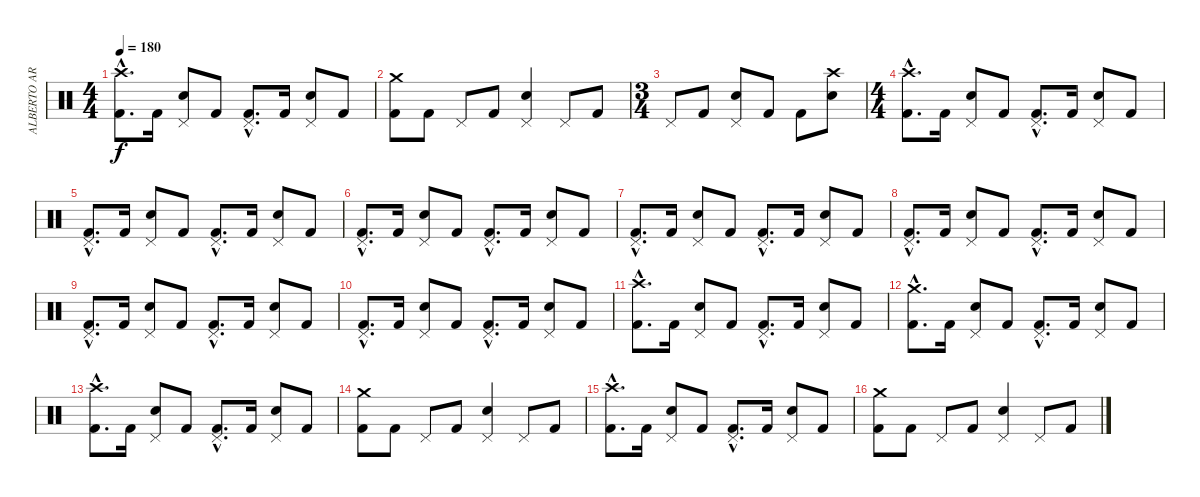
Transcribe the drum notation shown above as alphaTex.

\track ("ALBERTO ARDINES" "ALBERTO AR") {instrument percussion}
\staff {score}
\articulation defaults
\ts (4 4)
\tempo 180
\clef neutral
\ks c
("Crash high (hit)"{hac} "Kick (hit) 2"{hac}).8{d dy f} "Kick (hit) 2".16 ("Pedal Hi-Hat (hit)" "Electric Snare (hit)").8 "Kick (hit) 2".8 ("Pedal Hi-Hat (hit)"{hac} "Kick (hit) 2"{hac}).8{d} "Kick (hit) 2".16 ("Pedal Hi-Hat (hit)" "Electric Snare (hit)").8 "Kick (hit) 2".8 |
("Crash medium (hit)" "Kick (hit) 2").8 "Kick (hit) 2".8 "Pedal Hi-Hat (hit)".8 "Kick (hit) 2".8 ("Pedal Hi-Hat (hit)" "Electric Snare (hit)").4 "Pedal Hi-Hat (hit)".8 "Kick (hit) 2".8 |
\ts (3 4)
"Pedal Hi-Hat (hit)".8 "Kick (hit) 2".8 ("Pedal Hi-Hat (hit)" "Electric Snare (hit)").8 "Kick (hit) 2".8 "Kick (hit) 2".8 ("Crash high (hit)" "Electric Snare (hit)").8 |
\ts (4 4)
("Crash high (hit)"{hac} "Kick (hit) 2"{hac}).8{d} "Kick (hit) 2".16 ("Pedal Hi-Hat (hit)" "Electric Snare (hit)").8 "Kick (hit) 2".8 ("Pedal Hi-Hat (hit)"{hac} "Kick (hit) 2"{hac}).8{d} "Kick (hit) 2".16 ("Pedal Hi-Hat (hit)" "Electric Snare (hit)").8 "Kick (hit) 2".8 |
("Pedal Hi-Hat (hit)"{hac} "Kick (hit) 2"{hac}).8{d} "Kick (hit) 2".16 ("Pedal Hi-Hat (hit)" "Electric Snare (hit)").8 "Kick (hit) 2".8 ("Pedal Hi-Hat (hit)"{hac} "Kick (hit) 2"{hac}).8{d} "Kick (hit) 2".16 ("Pedal Hi-Hat (hit)" "Electric Snare (hit)").8 "Kick (hit) 2".8 |
("Pedal Hi-Hat (hit)"{hac} "Kick (hit) 2"{hac}).8{d} "Kick (hit) 2".16 ("Pedal Hi-Hat (hit)" "Electric Snare (hit)").8 "Kick (hit) 2".8 ("Pedal Hi-Hat (hit)"{hac} "Kick (hit) 2"{hac}).8{d} "Kick (hit) 2".16 ("Pedal Hi-Hat (hit)" "Electric Snare (hit)").8 "Kick (hit) 2".8 |
("Pedal Hi-Hat (hit)"{hac} "Kick (hit) 2"{hac}).8{d} "Kick (hit) 2".16 ("Pedal Hi-Hat (hit)" "Electric Snare (hit)").8 "Kick (hit) 2".8 ("Pedal Hi-Hat (hit)"{hac} "Kick (hit) 2"{hac}).8{d} "Kick (hit) 2".16 ("Pedal Hi-Hat (hit)" "Electric Snare (hit)").8 "Kick (hit) 2".8 |
("Pedal Hi-Hat (hit)"{hac} "Kick (hit) 2"{hac}).8{d} "Kick (hit) 2".16 ("Pedal Hi-Hat (hit)" "Electric Snare (hit)").8 "Kick (hit) 2".8 ("Pedal Hi-Hat (hit)"{hac} "Kick (hit) 2"{hac}).8{d} "Kick (hit) 2".16 ("Pedal Hi-Hat (hit)" "Electric Snare (hit)").8 "Kick (hit) 2".8 |
("Pedal Hi-Hat (hit)"{hac} "Kick (hit) 2"{hac}).8{d} "Kick (hit) 2".16 ("Pedal Hi-Hat (hit)" "Electric Snare (hit)").8 "Kick (hit) 2".8 ("Pedal Hi-Hat (hit)"{hac} "Kick (hit) 2"{hac}).8{d} "Kick (hit) 2".16 ("Pedal Hi-Hat (hit)" "Electric Snare (hit)").8 "Kick (hit) 2".8 |
("Pedal Hi-Hat (hit)"{hac} "Kick (hit) 2"{hac}).8{d} "Kick (hit) 2".16 ("Pedal Hi-Hat (hit)" "Electric Snare (hit)").8 "Kick (hit) 2".8 ("Pedal Hi-Hat (hit)"{hac} "Kick (hit) 2"{hac}).8{d} "Kick (hit) 2".16 ("Pedal Hi-Hat (hit)" "Electric Snare (hit)").8 "Kick (hit) 2".8 |
("Crash high (hit)"{hac} "Kick (hit) 2"{hac}).8{d} "Kick (hit) 2".16 ("Pedal Hi-Hat (hit)" "Electric Snare (hit)").8 "Kick (hit) 2".8 ("Pedal Hi-Hat (hit)"{hac} "Kick (hit) 2"{hac}).8{d} "Kick (hit) 2".16 ("Pedal Hi-Hat (hit)" "Electric Snare (hit)").8 "Kick (hit) 2".8 |
("Crash medium (hit)"{hac} "Kick (hit) 2"{hac}).8{d} "Kick (hit) 2".16 ("Pedal Hi-Hat (hit)" "Electric Snare (hit)").8 "Kick (hit) 2".8 ("Pedal Hi-Hat (hit)"{hac} "Kick (hit) 2"{hac}).8{d} "Kick (hit) 2".16 ("Pedal Hi-Hat (hit)" "Electric Snare (hit)").8 "Kick (hit) 2".8 |
("Crash high (hit)"{hac} "Kick (hit) 2"{hac}).8{d} "Kick (hit) 2".16 ("Pedal Hi-Hat (hit)" "Electric Snare (hit)").8 "Kick (hit) 2".8 ("Pedal Hi-Hat (hit)"{hac} "Kick (hit) 2"{hac}).8{d} "Kick (hit) 2".16 ("Pedal Hi-Hat (hit)" "Electric Snare (hit)").8 "Kick (hit) 2".8 |
("Crash medium (hit)" "Kick (hit) 2").8 "Kick (hit) 2".8 "Pedal Hi-Hat (hit)".8 "Kick (hit) 2".8 ("Pedal Hi-Hat (hit)" "Electric Snare (hit)").4 "Pedal Hi-Hat (hit)".8 "Kick (hit) 2".8 |
("Crash high (hit)"{hac} "Kick (hit) 2"{hac}).8{d} "Kick (hit) 2".16 ("Pedal Hi-Hat (hit)" "Electric Snare (hit)").8 "Kick (hit) 2".8 ("Pedal Hi-Hat (hit)"{hac} "Kick (hit) 2"{hac}).8{d} "Kick (hit) 2".16 ("Pedal Hi-Hat (hit)" "Electric Snare (hit)").8 "Kick (hit) 2".8 |
("Crash medium (hit)" "Kick (hit) 2").8 "Kick (hit) 2".8 "Pedal Hi-Hat (hit)".8 "Kick (hit) 2".8 ("Pedal Hi-Hat (hit)" "Electric Snare (hit)").4 "Pedal Hi-Hat (hit)".8 "Kick (hit) 2".8
